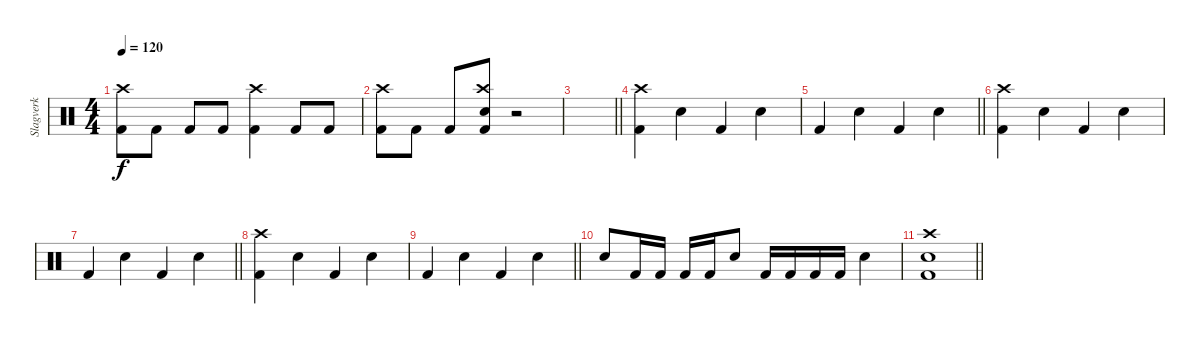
\track ("Slagverk" "Slagverk") {instrument percussion}
\staff {score}
\articulation defaults
\ts (4 4)
\tempo 120
\clef neutral
\ks c
("Kick (hit) 2" "Crash high (hit)").8{dy f} "Kick (hit) 2".8 "Kick (hit) 2".8 "Kick (hit) 2".8 ("Kick (hit) 2" "Crash high (hit)").4 "Kick (hit) 2".8 "Kick (hit) 2".8 |
("Kick (hit) 2" "Crash high (hit)").8 "Kick (hit) 2".8 "Kick (hit) 2".8 ("Snare (hit) 2" "Crash high (hit)" "Kick (hit) 2").8 r.2 |
\barLineRight lightlight
|
("Kick (hit) 2" "Crash high (hit)").4 "Snare (hit) 2".4 "Kick (hit) 2".4 "Snare (hit) 2".4 |
\barLineRight lightlight "Kick (hit) 2".4 "Snare (hit) 2".4 "Kick (hit) 2".4 "Snare (hit) 2".4
|
("Kick (hit) 2" "Crash high (hit)").4 "Snare (hit) 2".4 "Kick (hit) 2".4 "Snare (hit) 2".4 |
\barLineRight lightlight "Kick (hit) 2".4 "Snare (hit) 2".4 "Kick (hit) 2".4 "Snare (hit) 2".4
|
("Kick (hit) 2" "Crash high (hit)").4 "Snare (hit) 2".4 "Kick (hit) 2".4 "Snare (hit) 2".4 |
\barLineRight lightlight "Kick (hit) 2".4 "Snare (hit) 2".4 "Kick (hit) 2".4 "Snare (hit) 2".4
|
"Snare (hit) 2".8 "Kick (hit) 2".16 "Kick (hit) 2".16 "Kick (hit) 2".16 "Kick (hit) 2".16 "Snare (hit) 2".8 "Kick (hit) 2".16 "Kick (hit) 2".16 "Kick (hit) 2".16 "Kick (hit) 2".16 "Snare (hit) 2".4 |
\barLineRight lightlight
("Crash high (hit)" "Kick (hit) 2" "Snare (hit) 2").1
